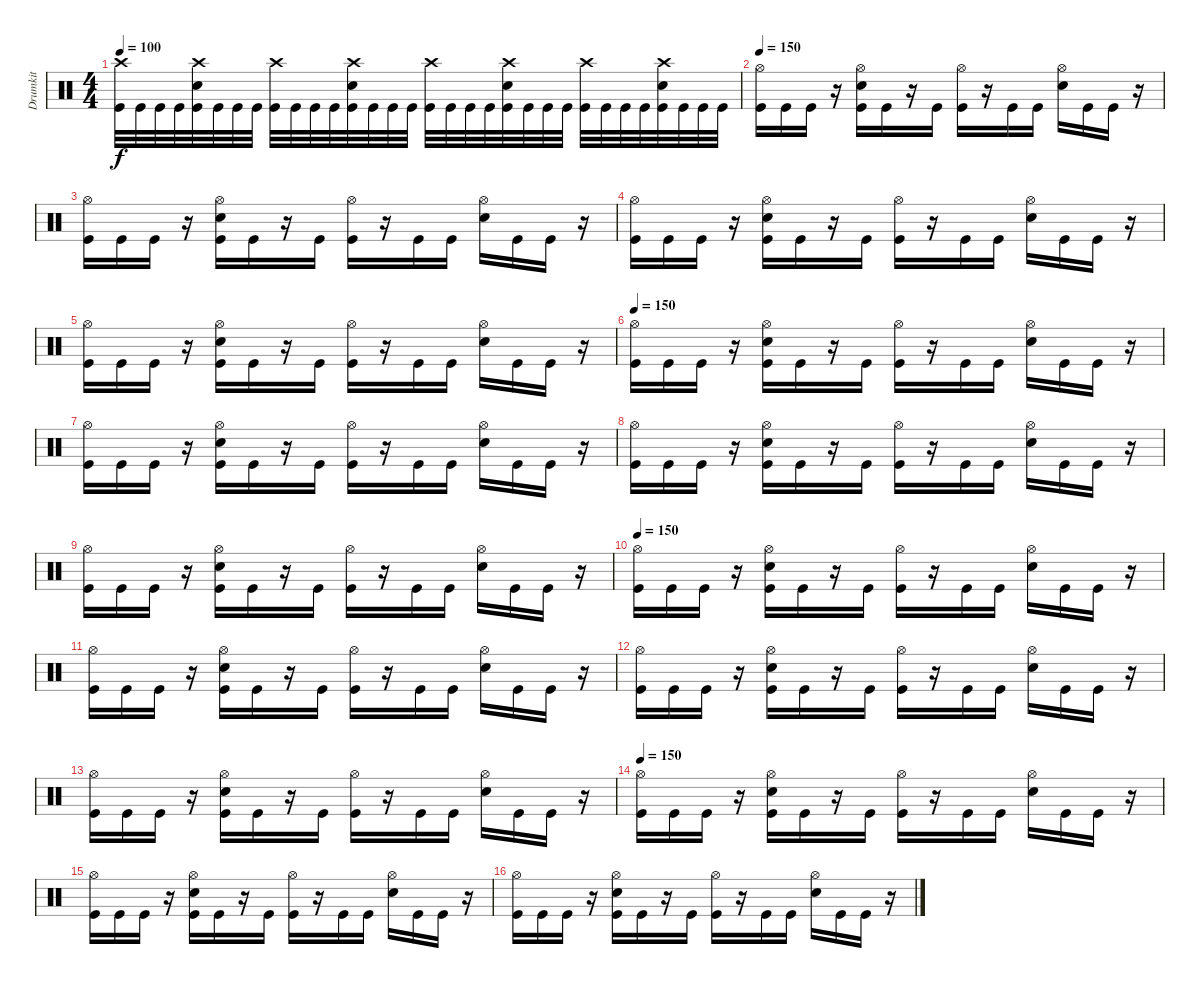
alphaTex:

\track ("Drumkit" "Drumkit") {instrument percussion}
\staff {score}
\articulation defaults
\ts (4 4)
\tempo 100
\clef neutral
\ks c
("Crash high (hit)" "Kick (hit)").32{dy f} "Kick (hit)".32 "Kick (hit)".32 "Kick (hit)".32 ("Snare (hit) 2" "Crash high (hit)" "Kick (hit)").32 "Kick (hit)".32 "Kick (hit)".32 "Kick (hit)".32 ("Crash high (hit)" "Kick (hit)").32 "Kick (hit)".32 "Kick (hit)".32 "Kick (hit)".32 ("Snare (hit) 2" "Crash high (hit)" "Kick (hit)").32 "Kick (hit)".32 "Kick (hit)".32 "Kick (hit)".32 ("Crash high (hit)" "Kick (hit)").32 "Kick (hit)".32 "Kick (hit)".32 "Kick (hit)".32 ("Snare (hit) 2" "Crash high (hit)" "Kick (hit)").32 "Kick (hit)".32 "Kick (hit)".32 "Kick (hit)".32 ("Crash high (hit)" "Kick (hit)").32 "Kick (hit)".32 "Kick (hit)".32 "Kick (hit)".32 ("Snare (hit) 2" "Crash high (hit)" "Kick (hit)").32 "Kick (hit)".32 "Kick (hit)".32 "Kick (hit)".32 |
\tempo 150
("Hi-Hat (open)" "Kick (hit)").16 "Kick (hit)".16 "Kick (hit)".16 r.16 ("Snare (hit) 2" "Hi-Hat (open)" "Kick (hit)").16 "Kick (hit)".16 r.16 "Kick (hit)".16 ("Hi-Hat (open)" "Kick (hit)").16 r.16 "Kick (hit)".16 "Kick (hit)".16 ("Snare (hit) 2" "Hi-Hat (open)").16 "Kick (hit)".16 "Kick (hit)".16 r.16 |
("Hi-Hat (open)" "Kick (hit)").16 "Kick (hit)".16 "Kick (hit)".16 r.16 ("Snare (hit) 2" "Hi-Hat (open)" "Kick (hit)").16 "Kick (hit)".16 r.16 "Kick (hit)".16 ("Hi-Hat (open)" "Kick (hit)").16 r.16 "Kick (hit)".16 "Kick (hit)".16 ("Snare (hit) 2" "Hi-Hat (open)").16 "Kick (hit)".16 "Kick (hit)".16 r.16 |
("Hi-Hat (open)" "Kick (hit)").16 "Kick (hit)".16 "Kick (hit)".16 r.16 ("Snare (hit) 2" "Hi-Hat (open)" "Kick (hit)").16 "Kick (hit)".16 r.16 "Kick (hit)".16 ("Hi-Hat (open)" "Kick (hit)").16 r.16 "Kick (hit)".16 "Kick (hit)".16 ("Snare (hit) 2" "Hi-Hat (open)").16 "Kick (hit)".16 "Kick (hit)".16 r.16 |
("Hi-Hat (open)" "Kick (hit)").16 "Kick (hit)".16 "Kick (hit)".16 r.16 ("Snare (hit) 2" "Hi-Hat (open)" "Kick (hit)").16 "Kick (hit)".16 r.16 "Kick (hit)".16 ("Hi-Hat (open)" "Kick (hit)").16 r.16 "Kick (hit)".16 "Kick (hit)".16 ("Snare (hit) 2" "Hi-Hat (open)").16 "Kick (hit)".16 "Kick (hit)".16 r.16 |
\tempo 150
("Hi-Hat (open)" "Kick (hit)").16 "Kick (hit)".16 "Kick (hit)".16 r.16 ("Snare (hit) 2" "Hi-Hat (open)" "Kick (hit)").16 "Kick (hit)".16 r.16 "Kick (hit)".16 ("Hi-Hat (open)" "Kick (hit)").16 r.16 "Kick (hit)".16 "Kick (hit)".16 ("Snare (hit) 2" "Hi-Hat (open)").16 "Kick (hit)".16 "Kick (hit)".16 r.16 |
("Hi-Hat (open)" "Kick (hit)").16 "Kick (hit)".16 "Kick (hit)".16 r.16 ("Snare (hit) 2" "Hi-Hat (open)" "Kick (hit)").16 "Kick (hit)".16 r.16 "Kick (hit)".16 ("Hi-Hat (open)" "Kick (hit)").16 r.16 "Kick (hit)".16 "Kick (hit)".16 ("Snare (hit) 2" "Hi-Hat (open)").16 "Kick (hit)".16 "Kick (hit)".16 r.16 |
("Hi-Hat (open)" "Kick (hit)").16 "Kick (hit)".16 "Kick (hit)".16 r.16 ("Snare (hit) 2" "Hi-Hat (open)" "Kick (hit)").16 "Kick (hit)".16 r.16 "Kick (hit)".16 ("Hi-Hat (open)" "Kick (hit)").16 r.16 "Kick (hit)".16 "Kick (hit)".16 ("Snare (hit) 2" "Hi-Hat (open)").16 "Kick (hit)".16 "Kick (hit)".16 r.16 |
("Hi-Hat (open)" "Kick (hit)").16 "Kick (hit)".16 "Kick (hit)".16 r.16 ("Snare (hit) 2" "Hi-Hat (open)" "Kick (hit)").16 "Kick (hit)".16 r.16 "Kick (hit)".16 ("Hi-Hat (open)" "Kick (hit)").16 r.16 "Kick (hit)".16 "Kick (hit)".16 ("Snare (hit) 2" "Hi-Hat (open)").16 "Kick (hit)".16 "Kick (hit)".16 r.16 |
\tempo 150
("Hi-Hat (open)" "Kick (hit)").16 "Kick (hit)".16 "Kick (hit)".16 r.16 ("Snare (hit) 2" "Hi-Hat (open)" "Kick (hit)").16 "Kick (hit)".16 r.16 "Kick (hit)".16 ("Hi-Hat (open)" "Kick (hit)").16 r.16 "Kick (hit)".16 "Kick (hit)".16 ("Snare (hit) 2" "Hi-Hat (open)").16 "Kick (hit)".16 "Kick (hit)".16 r.16 |
("Hi-Hat (open)" "Kick (hit)").16 "Kick (hit)".16 "Kick (hit)".16 r.16 ("Snare (hit) 2" "Hi-Hat (open)" "Kick (hit)").16 "Kick (hit)".16 r.16 "Kick (hit)".16 ("Hi-Hat (open)" "Kick (hit)").16 r.16 "Kick (hit)".16 "Kick (hit)".16 ("Snare (hit) 2" "Hi-Hat (open)").16 "Kick (hit)".16 "Kick (hit)".16 r.16 |
("Hi-Hat (open)" "Kick (hit)").16 "Kick (hit)".16 "Kick (hit)".16 r.16 ("Snare (hit) 2" "Hi-Hat (open)" "Kick (hit)").16 "Kick (hit)".16 r.16 "Kick (hit)".16 ("Hi-Hat (open)" "Kick (hit)").16 r.16 "Kick (hit)".16 "Kick (hit)".16 ("Snare (hit) 2" "Hi-Hat (open)").16 "Kick (hit)".16 "Kick (hit)".16 r.16 |
("Hi-Hat (open)" "Kick (hit)").16 "Kick (hit)".16 "Kick (hit)".16 r.16 ("Snare (hit) 2" "Hi-Hat (open)" "Kick (hit)").16 "Kick (hit)".16 r.16 "Kick (hit)".16 ("Hi-Hat (open)" "Kick (hit)").16 r.16 "Kick (hit)".16 "Kick (hit)".16 ("Snare (hit) 2" "Hi-Hat (open)").16 "Kick (hit)".16 "Kick (hit)".16 r.16 |
\tempo 150
("Hi-Hat (open)" "Kick (hit)").16 "Kick (hit)".16 "Kick (hit)".16 r.16 ("Snare (hit) 2" "Hi-Hat (open)" "Kick (hit)").16 "Kick (hit)".16 r.16 "Kick (hit)".16 ("Hi-Hat (open)" "Kick (hit)").16 r.16 "Kick (hit)".16 "Kick (hit)".16 ("Snare (hit) 2" "Hi-Hat (open)").16 "Kick (hit)".16 "Kick (hit)".16 r.16 |
("Hi-Hat (open)" "Kick (hit)").16 "Kick (hit)".16 "Kick (hit)".16 r.16 ("Snare (hit) 2" "Hi-Hat (open)" "Kick (hit)").16 "Kick (hit)".16 r.16 "Kick (hit)".16 ("Hi-Hat (open)" "Kick (hit)").16 r.16 "Kick (hit)".16 "Kick (hit)".16 ("Snare (hit) 2" "Hi-Hat (open)").16 "Kick (hit)".16 "Kick (hit)".16 r.16 |
("Hi-Hat (open)" "Kick (hit)").16 "Kick (hit)".16 "Kick (hit)".16 r.16 ("Snare (hit) 2" "Hi-Hat (open)" "Kick (hit)").16 "Kick (hit)".16 r.16 "Kick (hit)".16 ("Hi-Hat (open)" "Kick (hit)").16 r.16 "Kick (hit)".16 "Kick (hit)".16 ("Snare (hit) 2" "Hi-Hat (open)").16 "Kick (hit)".16 "Kick (hit)".16 r.16
